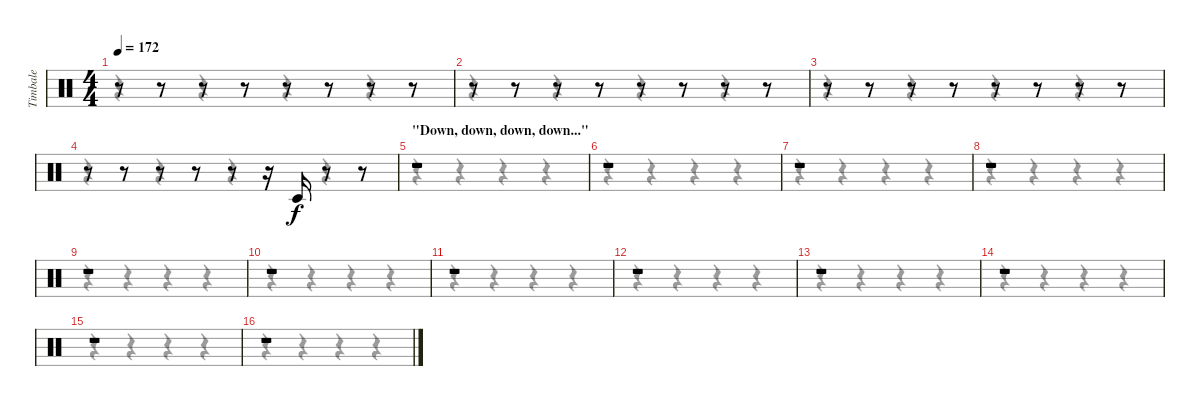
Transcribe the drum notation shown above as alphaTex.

\track ("Timbale" "Timbale") {instrument percussion}
\staff {score}
\articulation defaults
\voice
\ts (4 4)
\tempo 172
\clef neutral
\ks c
r.8{dy f} r.8 r.8 r.8 r.8 r.8 r.8 r.8 |
r.8 r.8 r.8 r.8 r.8 r.8 r.8 r.8 |
r.8 r.8 r.8 r.8 r.8 r.8 r.8 r.8 |
r.8 r.8 r.8 r.8 r.8 r.16 "Timbale low (hit)".16 r.8 r.8 |
\section ("" "\"Down, down, down, down...\"")
r.1 |
r.1 |
r.1 |
r.1 |
r.1 |
r.1 |
r.1 |
r.1 |
r.1 |
r.1 |
r.1 |
r.1
\voice
\clef neutral
\ottava regular
\simile none
\ks c
r.4{dy f} r.4 r.4 r.4 |
r.4 r.4 r.4 r.4 |
r.4 r.4 r.4 r.4 |
r.4 r.4 r.4 r.4 |
r.4 r.4 r.4 r.4 |
r.4 r.4 r.4 r.4 |
r.4 r.4 r.4 r.4 |
r.4 r.4 r.4 r.4 |
r.4 r.4 r.4 r.4 |
r.4 r.4 r.4 r.4 |
r.4 r.4 r.4 r.4 |
r.4 r.4 r.4 r.4 |
r.4 r.4 r.4 r.4 |
r.4 r.4 r.4 r.4 |
r.4 r.4 r.4 r.4 |
r.4 r.4 r.4 r.4
